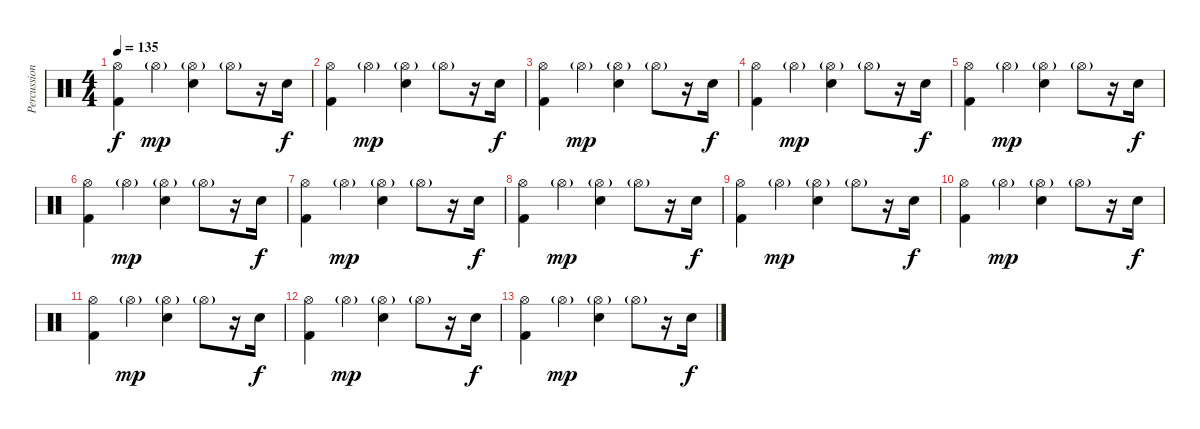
\track ("Percussion" "Percussion") {instrument percussion}
\staff {score}
\articulation defaults
\ts (4 4)
\tempo 135
\clef neutral
\ks c
("Hi-Hat (open)" "Kick (hit) 2").4{dy f} "Hi-Hat (open)"{g}.4{dy mp} ("Hi-Hat (open)"{g} "Electric Snare (hit)").4 "Hi-Hat (open)"{g}.8 r.16 "Electric Snare (hit)".16{dy f} |
("Hi-Hat (open)" "Kick (hit) 2").4 "Hi-Hat (open)"{g}.4{dy mp} ("Hi-Hat (open)"{g} "Electric Snare (hit)").4 "Hi-Hat (open)"{g}.8 r.16 "Electric Snare (hit)".16{dy f} |
("Hi-Hat (open)" "Kick (hit) 2").4 "Hi-Hat (open)"{g}.4{dy mp} ("Hi-Hat (open)"{g} "Electric Snare (hit)").4 "Hi-Hat (open)"{g}.8 r.16 "Electric Snare (hit)".16{dy f} |
("Hi-Hat (open)" "Kick (hit) 2").4 "Hi-Hat (open)"{g}.4{dy mp} ("Hi-Hat (open)"{g} "Electric Snare (hit)").4 "Hi-Hat (open)"{g}.8 r.16 "Electric Snare (hit)".16{dy f} |
("Hi-Hat (open)" "Kick (hit) 2").4 "Hi-Hat (open)"{g}.4{dy mp} ("Hi-Hat (open)"{g} "Electric Snare (hit)").4 "Hi-Hat (open)"{g}.8 r.16 "Electric Snare (hit)".16{dy f} |
("Hi-Hat (open)" "Kick (hit) 2").4 "Hi-Hat (open)"{g}.4{dy mp} ("Hi-Hat (open)"{g} "Electric Snare (hit)").4 "Hi-Hat (open)"{g}.8 r.16 "Electric Snare (hit)".16{dy f} |
("Hi-Hat (open)" "Kick (hit) 2").4 "Hi-Hat (open)"{g}.4{dy mp} ("Hi-Hat (open)"{g} "Electric Snare (hit)").4 "Hi-Hat (open)"{g}.8 r.16 "Electric Snare (hit)".16{dy f} |
("Hi-Hat (open)" "Kick (hit) 2").4 "Hi-Hat (open)"{g}.4{dy mp} ("Hi-Hat (open)"{g} "Electric Snare (hit)").4 "Hi-Hat (open)"{g}.8 r.16 "Electric Snare (hit)".16{dy f} |
("Hi-Hat (open)" "Kick (hit) 2").4 "Hi-Hat (open)"{g}.4{dy mp} ("Hi-Hat (open)"{g} "Electric Snare (hit)").4 "Hi-Hat (open)"{g}.8 r.16 "Electric Snare (hit)".16{dy f} |
("Hi-Hat (open)" "Kick (hit) 2").4 "Hi-Hat (open)"{g}.4{dy mp} ("Hi-Hat (open)"{g} "Electric Snare (hit)").4 "Hi-Hat (open)"{g}.8 r.16 "Electric Snare (hit)".16{dy f} |
("Hi-Hat (open)" "Kick (hit) 2").4 "Hi-Hat (open)"{g}.4{dy mp} ("Hi-Hat (open)"{g} "Electric Snare (hit)").4 "Hi-Hat (open)"{g}.8 r.16 "Electric Snare (hit)".16{dy f} |
("Hi-Hat (open)" "Kick (hit) 2").4 "Hi-Hat (open)"{g}.4{dy mp} ("Hi-Hat (open)"{g} "Electric Snare (hit)").4 "Hi-Hat (open)"{g}.8 r.16 "Electric Snare (hit)".16{dy f} |
("Hi-Hat (open)" "Kick (hit) 2").4 "Hi-Hat (open)"{g}.4{dy mp} ("Hi-Hat (open)"{g} "Electric Snare (hit)").4 "Hi-Hat (open)"{g}.8 r.16 "Electric Snare (hit)".16{dy f}
